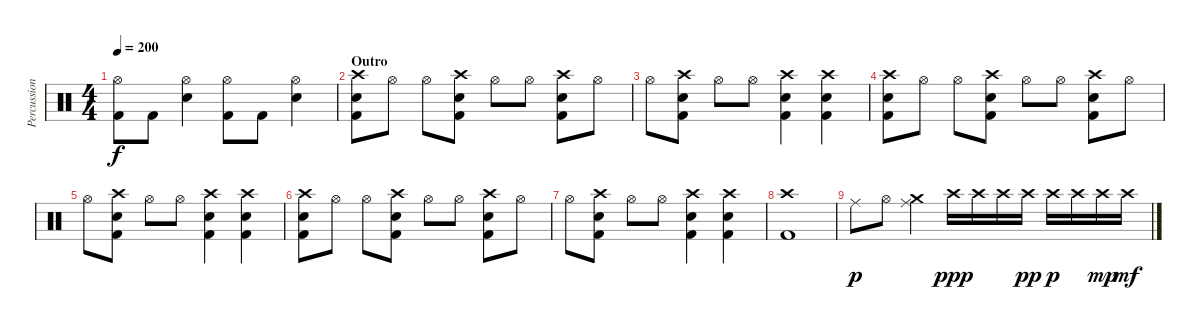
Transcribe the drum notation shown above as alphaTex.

\track ("Percussion" "Percussion") {instrument percussion}
\staff {score}
\articulation defaults
\ts (4 4)
\tempo 200
\clef neutral
\ks c
("Hi-Hat (open)" "Kick (hit) 2").8{dy f} "Kick (hit) 2".8 ("Hi-Hat (open)" "Snare (hit) 2").4 ("Hi-Hat (open)" "Kick (hit) 2").8 "Kick (hit) 2".8 ("Hi-Hat (open)" "Snare (hit) 2").4 |
\section ("" "Outro")
("Crash high (hit)" "Snare (hit) 2" "Kick (hit) 2").8 "Hi-Hat (open)".8 "Hi-Hat (open)".8 ("Crash high (hit)" "Snare (hit) 2" "Kick (hit) 2").8 "Hi-Hat (open)".8 "Hi-Hat (open)".8 ("Crash high (hit)" "Snare (hit) 2" "Kick (hit) 2").8 "Hi-Hat (open)".8 |
"Hi-Hat (open)".8 ("Crash high (hit)" "Snare (hit) 2" "Kick (hit) 2").8 "Hi-Hat (open)".8 "Hi-Hat (open)".8 ("Crash high (hit)" "Snare (hit) 2" "Kick (hit) 2").4 ("Crash high (hit)" "Snare (hit) 2" "Kick (hit) 2").4 |
("Crash high (hit)" "Snare (hit) 2" "Kick (hit) 2").8 "Hi-Hat (open)".8 "Hi-Hat (open)".8 ("Crash high (hit)" "Snare (hit) 2" "Kick (hit) 2").8 "Hi-Hat (open)".8 "Hi-Hat (open)".8 ("Crash high (hit)" "Snare (hit) 2" "Kick (hit) 2").8 "Hi-Hat (open)".8 |
"Hi-Hat (open)".8 ("Crash high (hit)" "Snare (hit) 2" "Kick (hit) 2").8 "Hi-Hat (open)".8 "Hi-Hat (open)".8 ("Crash high (hit)" "Snare (hit) 2" "Kick (hit) 2").4 ("Crash high (hit)" "Snare (hit) 2" "Kick (hit) 2").4 |
("Crash high (hit)" "Snare (hit) 2" "Kick (hit) 2").8 "Hi-Hat (open)".8 "Hi-Hat (open)".8 ("Crash high (hit)" "Snare (hit) 2" "Kick (hit) 2").8 "Hi-Hat (open)".8 "Hi-Hat (open)".8 ("Crash high (hit)" "Snare (hit) 2" "Kick (hit) 2").8 "Hi-Hat (open)".8 |
"Hi-Hat (open)".8 ("Crash high (hit)" "Snare (hit) 2" "Kick (hit) 2").8 "Hi-Hat (open)".8 "Hi-Hat (open)".8 ("Crash high (hit)" "Snare (hit) 2" "Kick (hit) 2").4 ("Crash high (hit)" "Snare (hit) 2" "Kick (hit) 2").4 |
("Crash high (hit)" "Kick (hit) 2").1 |
"Ride (middle)".8{dy p} "Hi-Hat (open)".8 ("Crash medium (hit)" "Ride (middle)").4 "Crash high (hit)".16{dy ppp} "Crash high (hit)".16 "Crash high (hit)".16 "Crash high (hit)".16{dy pp} "Crash high (hit)".16{dy p} "Crash high (hit)".16 "Crash high (hit)".16{dy mp} "Crash high (hit)".16{dy mf}
